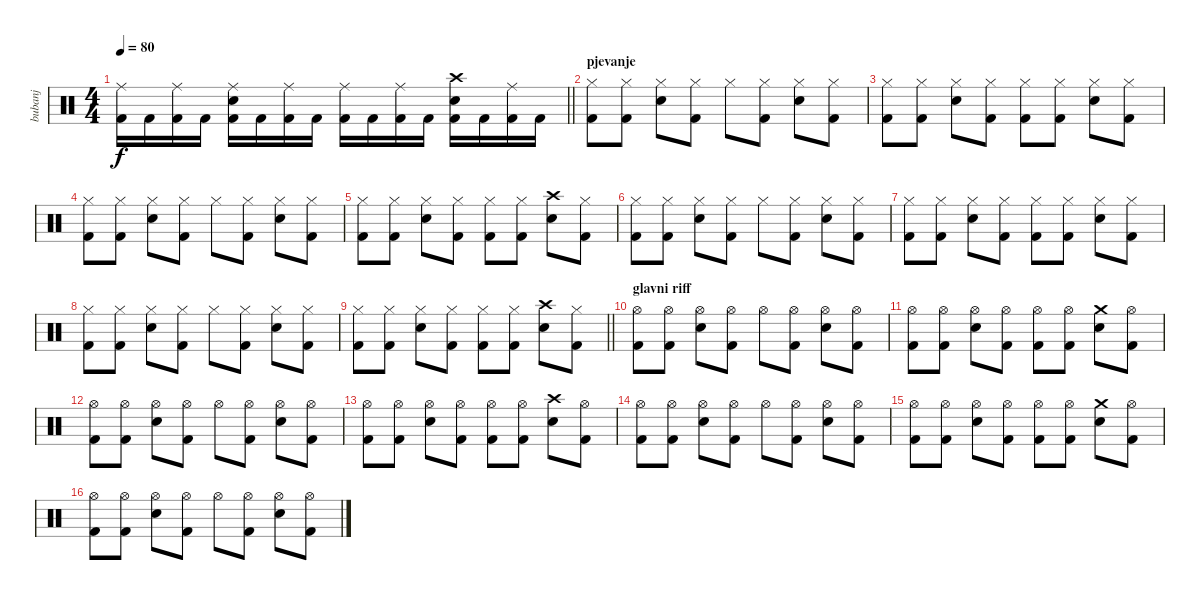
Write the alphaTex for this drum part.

\track ("bubanj" "bubanj") {instrument percussion}
\staff {score}
\articulation defaults
\ts (4 4)
\tempo 80
\clef neutral
\barLineRight lightlight
\ks c
("Ride (middle)" "Kick (hit) 2").16{dy f} "Kick (hit) 2".16 ("Ride (middle)" "Kick (hit) 2").16 "Kick (hit) 2".16 ("Ride (middle)" "Electric Snare (hit)" "Kick (hit) 2").16 "Kick (hit) 2".16 ("Ride (middle)" "Kick (hit) 2").16 "Kick (hit) 2".16 ("Ride (middle)" "Kick (hit) 2").16 "Kick (hit) 2".16 ("Ride (middle)" "Kick (hit) 2").16 "Kick (hit) 2".16 ("Crash high (hit)" "Electric Snare (hit)" "Kick (hit) 2").16 "Kick (hit) 2".16 ("Ride (middle)" "Kick (hit) 2").16 "Kick (hit) 2".16 |
\section ("" "pjevanje")
("Hi-Hat (closed)" "Kick (hit) 2").8 ("Hi-Hat (closed)" "Kick (hit) 2").8 ("Hi-Hat (closed)" "Electric Snare (hit)").8 ("Hi-Hat (closed)" "Kick (hit) 2").8 "Hi-Hat (closed)".8 ("Hi-Hat (closed)" "Kick (hit) 2").8 ("Hi-Hat (closed)" "Electric Snare (hit)").8 ("Hi-Hat (closed)" "Kick (hit) 2").8 |
("Hi-Hat (closed)" "Kick (hit) 2").8 ("Hi-Hat (closed)" "Kick (hit) 2").8 ("Hi-Hat (closed)" "Electric Snare (hit)").8 ("Hi-Hat (closed)" "Kick (hit) 2").8 ("Hi-Hat (closed)" "Kick (hit) 2").8 ("Hi-Hat (closed)" "Kick (hit) 2").8 ("Hi-Hat (closed)" "Electric Snare (hit)").8 ("Hi-Hat (closed)" "Kick (hit) 2").8 |
("Hi-Hat (closed)" "Kick (hit) 2").8 ("Hi-Hat (closed)" "Kick (hit) 2").8 ("Hi-Hat (closed)" "Electric Snare (hit)").8 ("Hi-Hat (closed)" "Kick (hit) 2").8 "Hi-Hat (closed)".8 ("Hi-Hat (closed)" "Kick (hit) 2").8 ("Hi-Hat (closed)" "Electric Snare (hit)").8 ("Hi-Hat (closed)" "Kick (hit) 2").8 |
("Hi-Hat (closed)" "Kick (hit) 2").8 ("Hi-Hat (closed)" "Kick (hit) 2").8 ("Hi-Hat (closed)" "Electric Snare (hit)").8 ("Hi-Hat (closed)" "Kick (hit) 2").8 ("Hi-Hat (closed)" "Kick (hit) 2").8 ("Hi-Hat (closed)" "Kick (hit) 2").8 ("Crash high (hit)" "Electric Snare (hit)").8 ("Hi-Hat (closed)" "Kick (hit) 2").8 |
("Hi-Hat (closed)" "Kick (hit) 2").8 ("Hi-Hat (closed)" "Kick (hit) 2").8 ("Hi-Hat (closed)" "Electric Snare (hit)").8 ("Hi-Hat (closed)" "Kick (hit) 2").8 "Hi-Hat (closed)".8 ("Hi-Hat (closed)" "Kick (hit) 2").8 ("Hi-Hat (closed)" "Electric Snare (hit)").8 ("Hi-Hat (closed)" "Kick (hit) 2").8 |
("Hi-Hat (closed)" "Kick (hit) 2").8 ("Hi-Hat (closed)" "Kick (hit) 2").8 ("Hi-Hat (closed)" "Electric Snare (hit)").8 ("Hi-Hat (closed)" "Kick (hit) 2").8 ("Hi-Hat (closed)" "Kick (hit) 2").8 ("Hi-Hat (closed)" "Kick (hit) 2").8 ("Hi-Hat (closed)" "Electric Snare (hit)").8 ("Hi-Hat (closed)" "Kick (hit) 2").8 |
("Hi-Hat (closed)" "Kick (hit) 2").8 ("Hi-Hat (closed)" "Kick (hit) 2").8 ("Hi-Hat (closed)" "Electric Snare (hit)").8 ("Hi-Hat (closed)" "Kick (hit) 2").8 "Hi-Hat (closed)".8 ("Hi-Hat (closed)" "Kick (hit) 2").8 ("Hi-Hat (closed)" "Electric Snare (hit)").8 ("Hi-Hat (closed)" "Kick (hit) 2").8 |
\barLineRight lightlight
("Hi-Hat (closed)" "Kick (hit) 2").8 ("Hi-Hat (closed)" "Kick (hit) 2").8 ("Hi-Hat (closed)" "Electric Snare (hit)").8 ("Hi-Hat (closed)" "Kick (hit) 2").8 ("Hi-Hat (closed)" "Kick (hit) 2").8 ("Hi-Hat (closed)" "Kick (hit) 2").8 ("Crash high (hit)" "Electric Snare (hit)").8 ("Hi-Hat (closed)" "Kick (hit) 2").8 |
\section ("" "glavni riff")
("Hi-Hat (open)" "Kick (hit) 2").8 ("Hi-Hat (open)" "Kick (hit) 2").8 ("Hi-Hat (open)" "Electric Snare (hit)").8 ("Hi-Hat (open)" "Kick (hit) 2").8 "Hi-Hat (open)".8 ("Hi-Hat (open)" "Kick (hit) 2").8 ("Hi-Hat (open)" "Electric Snare (hit)").8 ("Hi-Hat (open)" "Kick (hit) 2").8 |
("Hi-Hat (open)" "Kick (hit) 2").8 ("Hi-Hat (open)" "Kick (hit) 2").8 ("Hi-Hat (open)" "Electric Snare (hit)").8 ("Hi-Hat (open)" "Kick (hit) 2").8 ("Hi-Hat (open)" "Kick (hit) 2").8 ("Hi-Hat (open)" "Kick (hit) 2").8 ("Crash medium (hit)" "Electric Snare (hit)").8 ("Hi-Hat (open)" "Kick (hit) 2").8 |
("Hi-Hat (open)" "Kick (hit) 2").8 ("Hi-Hat (open)" "Kick (hit) 2").8 ("Hi-Hat (open)" "Electric Snare (hit)").8 ("Hi-Hat (open)" "Kick (hit) 2").8 "Hi-Hat (open)".8 ("Hi-Hat (open)" "Kick (hit) 2").8 ("Hi-Hat (open)" "Electric Snare (hit)").8 ("Hi-Hat (open)" "Kick (hit) 2").8 |
("Hi-Hat (open)" "Kick (hit) 2").8 ("Hi-Hat (open)" "Kick (hit) 2").8 ("Hi-Hat (open)" "Electric Snare (hit)").8 ("Hi-Hat (open)" "Kick (hit) 2").8 ("Hi-Hat (open)" "Kick (hit) 2").8 ("Hi-Hat (open)" "Kick (hit) 2").8 ("Crash high (hit)" "Electric Snare (hit)").8 ("Hi-Hat (open)" "Kick (hit) 2").8 |
("Hi-Hat (open)" "Kick (hit) 2").8 ("Hi-Hat (open)" "Kick (hit) 2").8 ("Hi-Hat (open)" "Electric Snare (hit)").8 ("Hi-Hat (open)" "Kick (hit) 2").8 "Hi-Hat (open)".8 ("Hi-Hat (open)" "Kick (hit) 2").8 ("Hi-Hat (open)" "Electric Snare (hit)").8 ("Hi-Hat (open)" "Kick (hit) 2").8 |
("Hi-Hat (open)" "Kick (hit) 2").8 ("Hi-Hat (open)" "Kick (hit) 2").8 ("Hi-Hat (open)" "Electric Snare (hit)").8 ("Hi-Hat (open)" "Kick (hit) 2").8 ("Hi-Hat (open)" "Kick (hit) 2").8 ("Hi-Hat (open)" "Kick (hit) 2").8 ("Crash medium (hit)" "Electric Snare (hit)").8 ("Hi-Hat (open)" "Kick (hit) 2").8 |
("Hi-Hat (open)" "Kick (hit) 2").8 ("Hi-Hat (open)" "Kick (hit) 2").8 ("Hi-Hat (open)" "Electric Snare (hit)").8 ("Hi-Hat (open)" "Kick (hit) 2").8 "Hi-Hat (open)".8 ("Hi-Hat (open)" "Kick (hit) 2").8 ("Hi-Hat (open)" "Electric Snare (hit)").8 ("Hi-Hat (open)" "Kick (hit) 2").8
